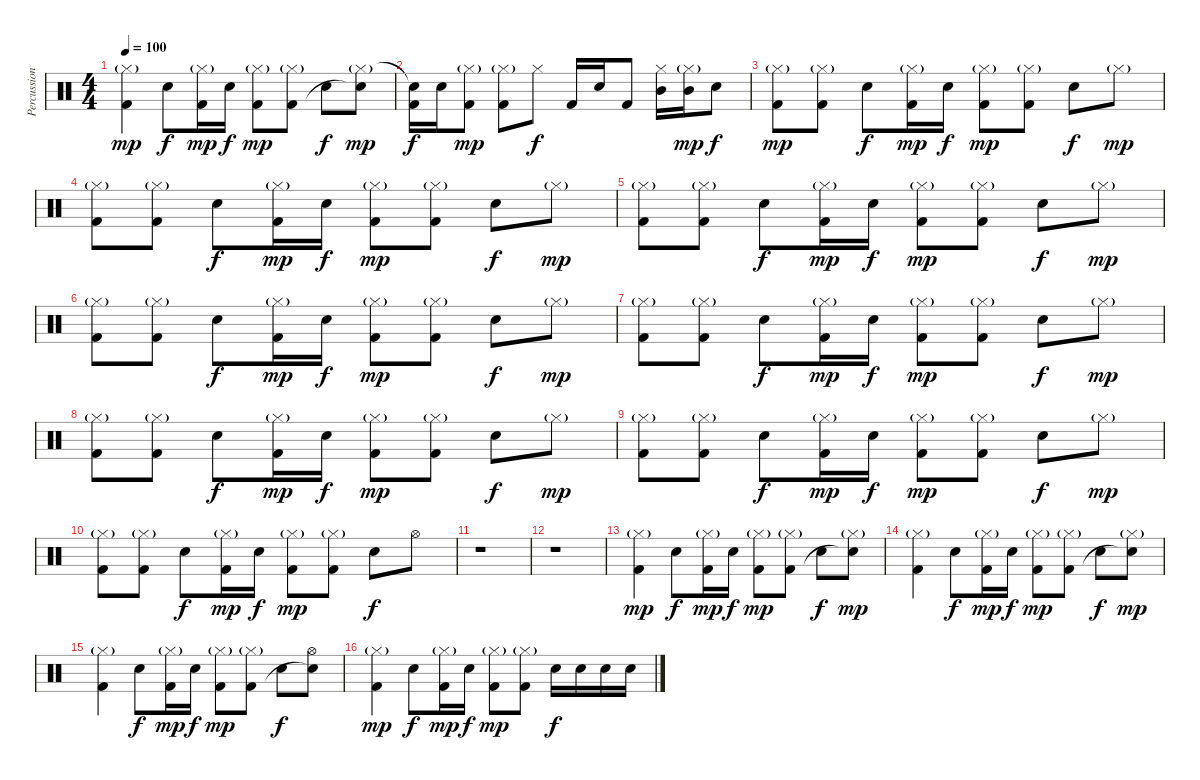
\track ("Percussion" "Percussion") {instrument percussion}
\staff {score}
\articulation defaults
\ts (4 4)
\tempo 100
\clef neutral
\ks c
("Hi-Hat (closed)"{g} "Kick (hit) 2").4{dy mp} "Electric Snare (hit)".8{dy f} ("Hi-Hat (closed)"{g} "Kick (hit) 2").16{dy mp} "Electric Snare (hit)".16{dy f} ("Hi-Hat (closed)"{g} "Kick (hit) 2").8{dy mp} ("Hi-Hat (closed)"{g} "Kick (hit) 2").8 "Electric Snare (hit)".8{dy f} ("Hi-Hat (closed)"{g} "Snare (hit)"{t}).8{dy mp} |
("Snare (hit)"{t} "Kick (hit) 2").16{dy f} "Electric Snare (hit)".16 ("Hi-Hat (closed)"{g} "Kick (hit) 2").8{dy mp} ("Hi-Hat (closed)"{g} "Kick (hit) 2").8 "Hi-Hat (closed)".8{dy f} "Kick (hit) 2".16 "Electric Snare (hit)".16 "Kick (hit) 2".8 ("Hi-Hat (closed)" "Mid Tom (hit)").16 ("Hi-Hat (closed)"{g} "Mid Tom (hit)").16{dy mp} "Electric Snare (hit)".8{dy f} |
("Hi-Hat (closed)"{g} "Kick (hit) 2").8{dy mp} ("Hi-Hat (closed)"{g} "Kick (hit) 2").8 "Electric Snare (hit)".8{dy f} ("Hi-Hat (closed)"{g} "Kick (hit) 2").16{dy mp} "Electric Snare (hit)".16{dy f} ("Hi-Hat (closed)"{g} "Kick (hit) 2").8{dy mp} ("Hi-Hat (closed)"{g} "Kick (hit) 2").8 "Electric Snare (hit)".8{dy f} "Hi-Hat (closed)"{g}.8{dy mp} |
("Hi-Hat (closed)"{g} "Kick (hit) 2").8 ("Hi-Hat (closed)"{g} "Kick (hit) 2").8 "Electric Snare (hit)".8{dy f} ("Hi-Hat (closed)"{g} "Kick (hit) 2").16{dy mp} "Electric Snare (hit)".16{dy f} ("Hi-Hat (closed)"{g} "Kick (hit) 2").8{dy mp} ("Hi-Hat (closed)"{g} "Kick (hit) 2").8 "Electric Snare (hit)".8{dy f} "Hi-Hat (closed)"{g}.8{dy mp} |
("Hi-Hat (closed)"{g} "Kick (hit) 2").8 ("Hi-Hat (closed)"{g} "Kick (hit) 2").8 "Electric Snare (hit)".8{dy f} ("Hi-Hat (closed)"{g} "Kick (hit) 2").16{dy mp} "Electric Snare (hit)".16{dy f} ("Hi-Hat (closed)"{g} "Kick (hit) 2").8{dy mp} ("Hi-Hat (closed)"{g} "Kick (hit) 2").8 "Electric Snare (hit)".8{dy f} "Hi-Hat (closed)"{g}.8{dy mp} |
("Hi-Hat (closed)"{g} "Kick (hit) 2").8 ("Hi-Hat (closed)"{g} "Kick (hit) 2").8 "Electric Snare (hit)".8{dy f} ("Hi-Hat (closed)"{g} "Kick (hit) 2").16{dy mp} "Electric Snare (hit)".16{dy f} ("Hi-Hat (closed)"{g} "Kick (hit) 2").8{dy mp} ("Hi-Hat (closed)"{g} "Kick (hit) 2").8 "Electric Snare (hit)".8{dy f} "Hi-Hat (closed)"{g}.8{dy mp} |
("Hi-Hat (closed)"{g} "Kick (hit) 2").8 ("Hi-Hat (closed)"{g} "Kick (hit) 2").8 "Electric Snare (hit)".8{dy f} ("Hi-Hat (closed)"{g} "Kick (hit) 2").16{dy mp} "Electric Snare (hit)".16{dy f} ("Hi-Hat (closed)"{g} "Kick (hit) 2").8{dy mp} ("Hi-Hat (closed)"{g} "Kick (hit) 2").8 "Electric Snare (hit)".8{dy f} "Hi-Hat (closed)"{g}.8{dy mp} |
("Hi-Hat (closed)"{g} "Kick (hit) 2").8 ("Hi-Hat (closed)"{g} "Kick (hit) 2").8 "Electric Snare (hit)".8{dy f} ("Hi-Hat (closed)"{g} "Kick (hit) 2").16{dy mp} "Electric Snare (hit)".16{dy f} ("Hi-Hat (closed)"{g} "Kick (hit) 2").8{dy mp} ("Hi-Hat (closed)"{g} "Kick (hit) 2").8 "Electric Snare (hit)".8{dy f} "Hi-Hat (closed)"{g}.8{dy mp} |
("Hi-Hat (closed)"{g} "Kick (hit) 2").8 ("Hi-Hat (closed)"{g} "Kick (hit) 2").8 "Electric Snare (hit)".8{dy f} ("Hi-Hat (closed)"{g} "Kick (hit) 2").16{dy mp} "Electric Snare (hit)".16{dy f} ("Hi-Hat (closed)"{g} "Kick (hit) 2").8{dy mp} ("Hi-Hat (closed)"{g} "Kick (hit) 2").8 "Electric Snare (hit)".8{dy f} "Hi-Hat (closed)"{g}.8{dy mp} |
("Hi-Hat (closed)"{g} "Kick (hit) 2").8 ("Hi-Hat (closed)"{g} "Kick (hit) 2").8 "Electric Snare (hit)".8{dy f} ("Hi-Hat (closed)"{g} "Kick (hit) 2").16{dy mp} "Electric Snare (hit)".16{dy f} ("Hi-Hat (closed)"{g} "Kick (hit) 2").8{dy mp} ("Hi-Hat (closed)"{g} "Kick (hit) 2").8 "Electric Snare (hit)".8{dy f} "Hi-Hat (open)".8 |
r.1 |
r.1 |
("Hi-Hat (closed)"{g} "Kick (hit) 2").4{dy mp} "Electric Snare (hit)".8{dy f} ("Hi-Hat (closed)"{g} "Kick (hit) 2").16{dy mp} "Electric Snare (hit)".16{dy f} ("Hi-Hat (closed)"{g} "Kick (hit) 2").8{dy mp} ("Hi-Hat (closed)"{g} "Kick (hit) 2").8 "Electric Snare (hit)".8{dy f} ("Hi-Hat (closed)"{g} "Snare (hit)"{t}).8{dy mp} |
("Hi-Hat (closed)"{g} "Kick (hit) 2").4 "Electric Snare (hit)".8{dy f} ("Hi-Hat (closed)"{g} "Kick (hit) 2").16{dy mp} "Electric Snare (hit)".16{dy f} ("Hi-Hat (closed)"{g} "Kick (hit) 2").8{dy mp} ("Hi-Hat (closed)"{g} "Kick (hit) 2").8 "Electric Snare (hit)".8{dy f} ("Hi-Hat (closed)"{g} "Snare (hit)"{t}).8{dy mp} |
("Hi-Hat (closed)"{g} "Kick (hit) 2").4 "Electric Snare (hit)".8{dy f} ("Hi-Hat (closed)"{g} "Kick (hit) 2").16{dy mp} "Electric Snare (hit)".16{dy f} ("Hi-Hat (closed)"{g} "Kick (hit) 2").8{dy mp} ("Hi-Hat (closed)"{g} "Kick (hit) 2").8 "Electric Snare (hit)".8{dy f} ("Hi-Hat (open)" "Snare (hit)"{t}).8 |
("Hi-Hat (closed)"{g} "Kick (hit) 2").4{dy mp} "Electric Snare (hit)".8{dy f} ("Hi-Hat (closed)"{g} "Kick (hit) 2").16{dy mp} "Electric Snare (hit)".16{dy f} ("Hi-Hat (closed)"{g} "Kick (hit) 2").8{dy mp} ("Hi-Hat (closed)"{g} "Kick (hit) 2").8 "Electric Snare (hit)".16{dy f} "Electric Snare (hit)".16 "Electric Snare (hit)".16 "Electric Snare (hit)".16
